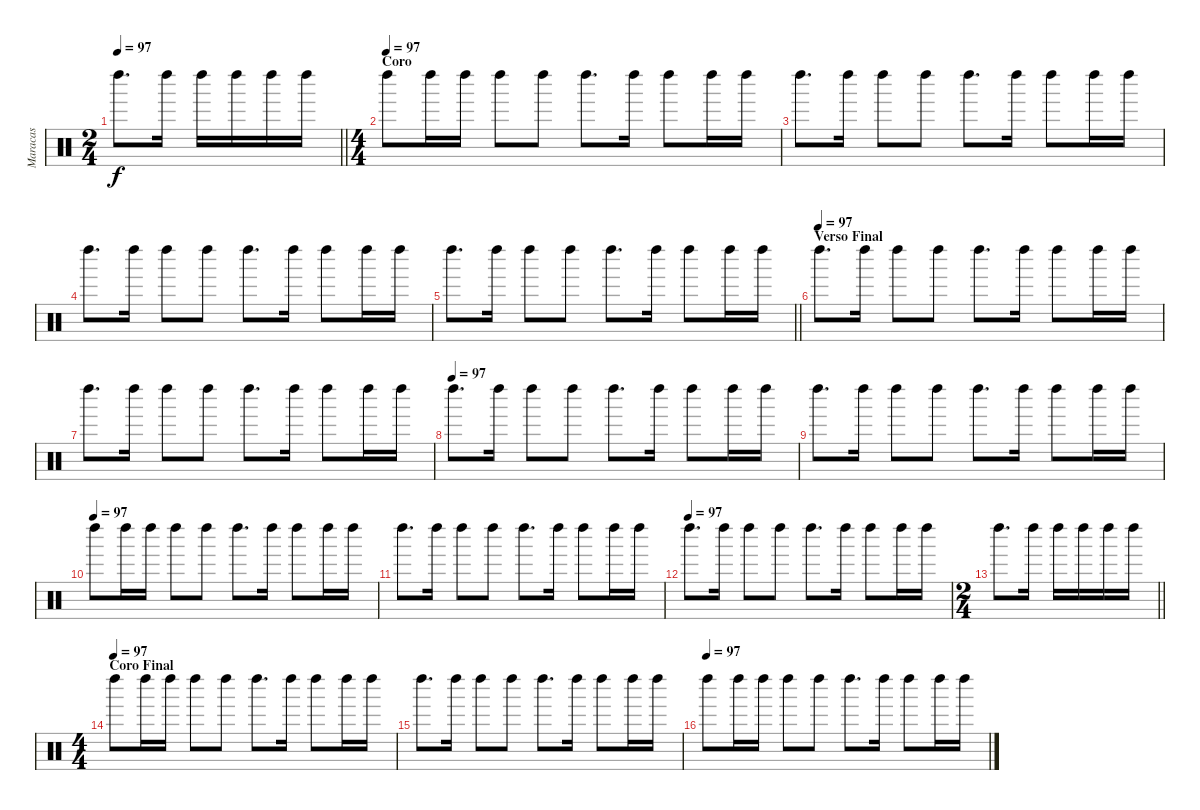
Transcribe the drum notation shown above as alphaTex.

\track ("Maracas" "Maracas") {instrument percussion}
\staff {score}
\articulation defaults
\ts (2 4)
\tempo 97
\clef neutral
\barLineRight lightlight
\ks c "Left Maraca (hit)".8{d dy f} "Left Maraca (hit)".16 "Left Maraca (hit)".16 "Left Maraca (hit)".16 "Left Maraca (hit)".16 "Left Maraca (hit)".16
|
\ts (4 4)
\section ("" "Coro")
\tempo (97)
"Left Maraca (hit)".8 "Left Maraca (hit)".16 "Left Maraca (hit)".16 "Left Maraca (hit)".8 "Left Maraca (hit)".8 "Left Maraca (hit)".8{d} "Left Maraca (hit)".16 "Left Maraca (hit)".8 "Left Maraca (hit)".16 "Left Maraca (hit)".16 |
"Left Maraca (hit)".8{d} "Left Maraca (hit)".16 "Left Maraca (hit)".8 "Left Maraca (hit)".8 "Left Maraca (hit)".8{d} "Left Maraca (hit)".16 "Left Maraca (hit)".8 "Left Maraca (hit)".16 "Left Maraca (hit)".16 |
"Left Maraca (hit)".8{d} "Left Maraca (hit)".16 "Left Maraca (hit)".8 "Left Maraca (hit)".8 "Left Maraca (hit)".8{d} "Left Maraca (hit)".16 "Left Maraca (hit)".8 "Left Maraca (hit)".16 "Left Maraca (hit)".16 |
\barLineRight lightlight "Left Maraca (hit)".8{d} "Left Maraca (hit)".16 "Left Maraca (hit)".8 "Left Maraca (hit)".8 "Left Maraca (hit)".8{d} "Left Maraca (hit)".16 "Left Maraca (hit)".8 "Left Maraca (hit)".16 "Left Maraca (hit)".16
|
\section ("" "Verso Final")
\tempo (97)
"Left Maraca (hit)".8{d} "Left Maraca (hit)".16 "Left Maraca (hit)".8 "Left Maraca (hit)".8 "Left Maraca (hit)".8{d} "Left Maraca (hit)".16 "Left Maraca (hit)".8 "Left Maraca (hit)".16 "Left Maraca (hit)".16 |
"Left Maraca (hit)".8{d} "Left Maraca (hit)".16 "Left Maraca (hit)".8 "Left Maraca (hit)".8 "Left Maraca (hit)".8{d} "Left Maraca (hit)".16 "Left Maraca (hit)".8 "Left Maraca (hit)".16 "Left Maraca (hit)".16 |
\tempo (97)
"Left Maraca (hit)".8{d} "Left Maraca (hit)".16 "Left Maraca (hit)".8 "Left Maraca (hit)".8 "Left Maraca (hit)".8{d} "Left Maraca (hit)".16 "Left Maraca (hit)".8 "Left Maraca (hit)".16 "Left Maraca (hit)".16 |
"Left Maraca (hit)".8{d} "Left Maraca (hit)".16 "Left Maraca (hit)".8 "Left Maraca (hit)".8 "Left Maraca (hit)".8{d} "Left Maraca (hit)".16 "Left Maraca (hit)".8 "Left Maraca (hit)".16 "Left Maraca (hit)".16 |
\tempo (97)
"Left Maraca (hit)".8 "Left Maraca (hit)".16 "Left Maraca (hit)".16 "Left Maraca (hit)".8 "Left Maraca (hit)".8 "Left Maraca (hit)".8{d} "Left Maraca (hit)".16 "Left Maraca (hit)".8 "Left Maraca (hit)".16 "Left Maraca (hit)".16 |
"Left Maraca (hit)".8{d} "Left Maraca (hit)".16 "Left Maraca (hit)".8 "Left Maraca (hit)".8 "Left Maraca (hit)".8{d} "Left Maraca (hit)".16 "Left Maraca (hit)".8 "Left Maraca (hit)".16 "Left Maraca (hit)".16 |
\tempo (97)
"Left Maraca (hit)".8{d} "Left Maraca (hit)".16 "Left Maraca (hit)".8 "Left Maraca (hit)".8 "Left Maraca (hit)".8{d} "Left Maraca (hit)".16 "Left Maraca (hit)".8 "Left Maraca (hit)".16 "Left Maraca (hit)".16 |
\ts (2 4)
\barLineRight lightlight "Left Maraca (hit)".8{d} "Left Maraca (hit)".16 "Left Maraca (hit)".16 "Left Maraca (hit)".16 "Left Maraca (hit)".16 "Left Maraca (hit)".16
|
\ts (4 4)
\section ("" "Coro Final")
\tempo (97)
"Left Maraca (hit)".8 "Left Maraca (hit)".16 "Left Maraca (hit)".16 "Left Maraca (hit)".8 "Left Maraca (hit)".8 "Left Maraca (hit)".8{d} "Left Maraca (hit)".16 "Left Maraca (hit)".8 "Left Maraca (hit)".16 "Left Maraca (hit)".16 |
"Left Maraca (hit)".8{d} "Left Maraca (hit)".16 "Left Maraca (hit)".8 "Left Maraca (hit)".8 "Left Maraca (hit)".8{d} "Left Maraca (hit)".16 "Left Maraca (hit)".8 "Left Maraca (hit)".16 "Left Maraca (hit)".16 |
\tempo (97)
"Left Maraca (hit)".8 "Left Maraca (hit)".16 "Left Maraca (hit)".16 "Left Maraca (hit)".8 "Left Maraca (hit)".8 "Left Maraca (hit)".8{d} "Left Maraca (hit)".16 "Left Maraca (hit)".8 "Left Maraca (hit)".16 "Left Maraca (hit)".16
